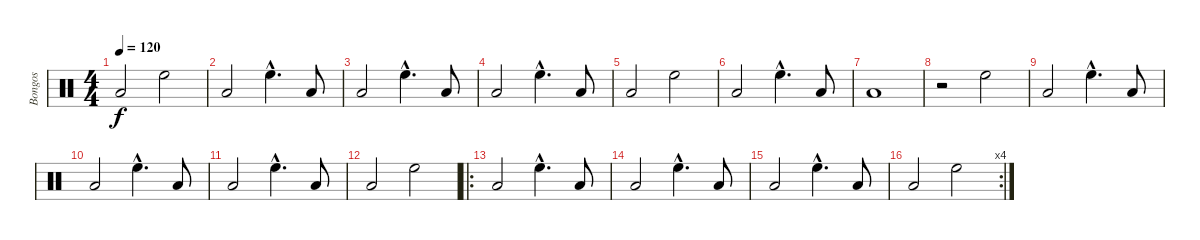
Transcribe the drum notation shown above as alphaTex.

\track ("Bongos" "Bongos") {instrument percussion}
\staff {score}
\articulation defaults
\ts (4 4)
\tempo 120
\clef neutral
\ks c "Low Floor Tom (hit)".2{dy f} "High Floor Tom (hit)".2
|
"Low Floor Tom (hit)".2 "High Floor Tom (hit)"{hac}.4{d} "Low Floor Tom (hit)".8 |
"Low Floor Tom (hit)".2 "High Floor Tom (hit)"{hac}.4{d} "Low Floor Tom (hit)".8 |
"Low Floor Tom (hit)".2 "High Floor Tom (hit)"{hac}.4{d} "Low Floor Tom (hit)".8 |
"Low Floor Tom (hit)".2 "High Floor Tom (hit)".2 |
"Low Floor Tom (hit)".2 "High Floor Tom (hit)"{hac}.4{d} "Low Floor Tom (hit)".8 |
"Low Floor Tom (hit)".1 |
r.2 "High Floor Tom (hit)".2 |
"Low Floor Tom (hit)".2 "High Floor Tom (hit)"{hac}.4{d} "Low Floor Tom (hit)".8 |
"Low Floor Tom (hit)".2 "High Floor Tom (hit)"{hac}.4{d} "Low Floor Tom (hit)".8 |
"Low Floor Tom (hit)".2 "High Floor Tom (hit)"{hac}.4{d} "Low Floor Tom (hit)".8 |
"Low Floor Tom (hit)".2 "High Floor Tom (hit)".2 |
\ro "Low Floor Tom (hit)".2 "High Floor Tom (hit)"{hac}.4{d} "Low Floor Tom (hit)".8
|
"Low Floor Tom (hit)".2 "High Floor Tom (hit)"{hac}.4{d} "Low Floor Tom (hit)".8 |
"Low Floor Tom (hit)".2 "High Floor Tom (hit)"{hac}.4{d} "Low Floor Tom (hit)".8 |
\rc 4 "Low Floor Tom (hit)".2 "High Floor Tom (hit)".2
